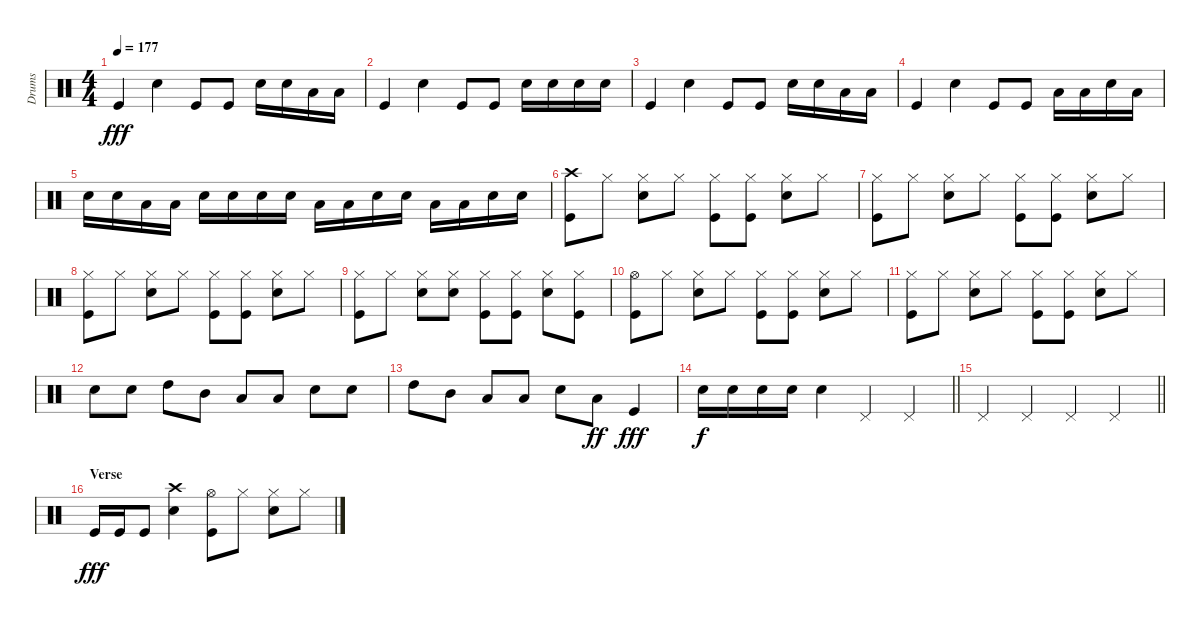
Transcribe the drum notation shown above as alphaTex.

\track ("Drums" "Drums") {instrument percussion}
\staff {score}
\articulation defaults
\ts (4 4)
\tempo 177
\clef neutral
\ks c "Kick (hit)".4{dy fff} "Snare (hit) 2".4 "Kick (hit)".8 "Kick (hit)".8 "Snare (hit) 2".16 "Snare (hit) 2".16 "Low Tom (hit)".16 "Low Tom (hit)".16
|
"Kick (hit)".4 "Snare (hit) 2".4 "Kick (hit)".8 "Kick (hit)".8 "Snare (hit) 2".16 "Snare (hit) 2".16 "Snare (hit) 2".16 "Snare (hit) 2".16 |
"Kick (hit)".4 "Snare (hit) 2".4 "Kick (hit)".8 "Kick (hit)".8 "Snare (hit) 2".16 "Snare (hit) 2".16 "Low Tom (hit)".16 "Low Tom (hit)".16 |
"Kick (hit)".4 "Snare (hit) 2".4 "Kick (hit)".8 "Kick (hit)".8 "Low Tom (hit)".16 "Low Tom (hit)".16 "Snare (hit) 2".16 "Low Tom (hit)".16 |
"Snare (hit) 2".16 "Snare (hit) 2".16 "Low Tom (hit)".16 "Low Tom (hit)".16 "Snare (hit) 2".16 "Snare (hit) 2".16 "Snare (hit) 2".16 "Snare (hit) 2".16 "Low Tom (hit)".16 "Low Tom (hit)".16 "Snare (hit) 2".16 "Snare (hit) 2".16 "Low Tom (hit)".16 "Low Tom (hit)".16 "Snare (hit) 2".16 "Snare (hit) 2".16 |
("Crash high (hit)" "Kick (hit)").8 "Hi-Hat (closed)".8 ("Hi-Hat (closed)" "Snare (hit) 2").8 "Hi-Hat (closed)".8 ("Hi-Hat (closed)" "Kick (hit)").8 ("Hi-Hat (closed)" "Kick (hit)").8 ("Hi-Hat (closed)" "Snare (hit) 2").8 "Hi-Hat (closed)".8 |
("Hi-Hat (closed)" "Kick (hit)").8 "Hi-Hat (closed)".8 ("Hi-Hat (closed)" "Snare (hit) 2").8 "Hi-Hat (closed)".8 ("Hi-Hat (closed)" "Kick (hit)").8 ("Hi-Hat (closed)" "Kick (hit)").8 ("Hi-Hat (closed)" "Snare (hit) 2").8 "Hi-Hat (closed)".8 |
("Hi-Hat (closed)" "Kick (hit)").8 "Hi-Hat (closed)".8 ("Hi-Hat (closed)" "Snare (hit) 2").8 "Hi-Hat (closed)".8 ("Hi-Hat (closed)" "Kick (hit)").8 ("Hi-Hat (closed)" "Kick (hit)").8 ("Hi-Hat (closed)" "Snare (hit) 2").8 "Hi-Hat (closed)".8 |
("Hi-Hat (closed)" "Kick (hit)").8 "Hi-Hat (closed)".8 ("Hi-Hat (closed)" "Snare (hit) 2").8 ("Hi-Hat (closed)" "Snare (hit) 2").8 ("Hi-Hat (closed)" "Kick (hit)").8 ("Hi-Hat (closed)" "Kick (hit)").8 ("Hi-Hat (closed)" "Snare (hit) 2").8 ("Hi-Hat (closed)" "Kick (hit)").8 |
("Hi-Hat (open)" "Kick (hit)").8 "Hi-Hat (closed)".8 ("Hi-Hat (closed)" "Snare (hit) 2").8 "Hi-Hat (closed)".8 ("Hi-Hat (closed)" "Kick (hit)").8 ("Hi-Hat (closed)" "Kick (hit)").8 ("Hi-Hat (closed)" "Snare (hit) 2").8 "Hi-Hat (closed)".8 |
("Hi-Hat (closed)" "Kick (hit)").8 "Hi-Hat (closed)".8 ("Hi-Hat (closed)" "Snare (hit) 2").8 "Hi-Hat (closed)".8 ("Hi-Hat (closed)" "Kick (hit)").8 ("Hi-Hat (closed)" "Kick (hit)").8 ("Hi-Hat (closed)" "Snare (hit) 2").8 "Hi-Hat (closed)".8 |
"Snare (hit) 2".8 "Snare (hit) 2".8 "High Tom (hit)".8 "Mid Tom (hit)".8 "Low Tom (hit)".8 "Low Floor Tom (hit)".8 "Snare (hit) 2".8 "Snare (hit) 2".8 |
"High Tom (hit)".8 "Mid Tom (hit)".8 "Low Tom (hit)".8 "Low Floor Tom (hit)".8 "Snare (hit) 2".8 "Low Tom (hit)".8{dy ff} "Kick (hit)".4{dy fff} |
\barLineRight lightlight "Snare (hit) 2".16{dy f} "Snare (hit) 2".16 "Snare (hit) 2".16 "Snare (hit) 2".16 "Snare (hit) 2".4 "Pedal Hi-Hat (hit)".4 "Pedal Hi-Hat (hit)".4
|
\barLineRight lightlight "Pedal Hi-Hat (hit)".4 "Pedal Hi-Hat (hit)".4 "Pedal Hi-Hat (hit)".4 "Pedal Hi-Hat (hit)".4
|
\section ("" "Verse")
"Kick (hit)".16{dy fff} "Kick (hit)".16 "Kick (hit)".8 ("Crash high (hit)" "Snare (hit) 2").4 ("Hi-Hat (open)" "Kick (hit)").8 "Hi-Hat (closed)".8 ("Hi-Hat (closed)" "Snare (hit) 2").8 "Hi-Hat (closed)".8
